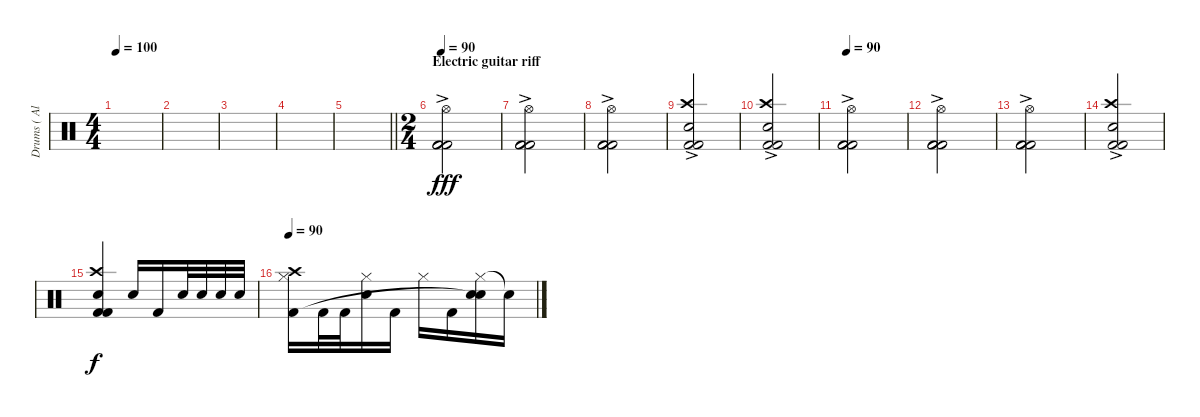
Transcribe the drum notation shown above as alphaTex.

\track ("Drums ( Alex Holzwarth)" "Drums ( Al") {instrument percussion}
\staff {score}
\articulation defaults
\ts (4 4)
\tempo 100
\clef neutral
\ks c
|
|
|
|
\barLineRight lightlight
|
\ts (2 4)
\section ("" "Electric guitar riff")
\tempo 90
("Hi-Hat (open)"{ac} "Kick (hit) 2"{ac} "Kick (hit) 2"{ac} "Kick (hit) 2"{ac}).2{dy fff} |
("Hi-Hat (open)"{ac} "Kick (hit) 2" "Kick (hit) 2" "Kick (hit) 2").2 |
("Hi-Hat (open)"{ac} "Kick (hit) 2" "Kick (hit) 2" "Kick (hit) 2").2 |
("Crash high (hit)"{ac} "Snare (hit) 2" "Kick (hit) 2" "Kick (hit) 2").2 |
("Crash high (hit)"{ac} "Snare (hit) 2" "Kick (hit) 2" "Kick (hit) 2").2 |
\tempo 90
("Hi-Hat (open)"{ac} "Kick (hit) 2" "Kick (hit) 2" "Kick (hit) 2").2 |
("Hi-Hat (open)"{ac} "Kick (hit) 2" "Kick (hit) 2" "Kick (hit) 2"{ac}).2 |
("Hi-Hat (open)"{ac} "Kick (hit) 2" "Kick (hit) 2" "Kick (hit) 2"{ac}).2 |
("Crash high (hit)"{ac} "Snare (hit) 2" "Kick (hit) 2" "Kick (hit) 2"{ac}).2 |
("Crash high (hit)" "Snare (hit) 2" "Kick (hit) 2" "Kick (hit) 2").4{dy f} "Electric Snare (hit)".16 "Kick (hit) 2".16 "Electric Snare (hit)".32 "Electric Snare (hit)".32 "Electric Snare (hit)".32 "Electric Snare (hit)".32 |
\tempo 90
("Crash high (hit)" "Hi-Hat (closed)" "Kick (hit) 2").16 "Kick (hit) 2".32 "Kick (hit) 2".32 ("Hi-Hat (closed)" "Electric Snare (hit)").16 "Kick (hit) 2".16 "Hi-Hat (closed)".16 "Kick (hit) 2".16 ("Hi-Hat (closed)" "Electric Snare (hit)" "Snare (hit)"{t}).16 "Snare (hit)"{t}.16
